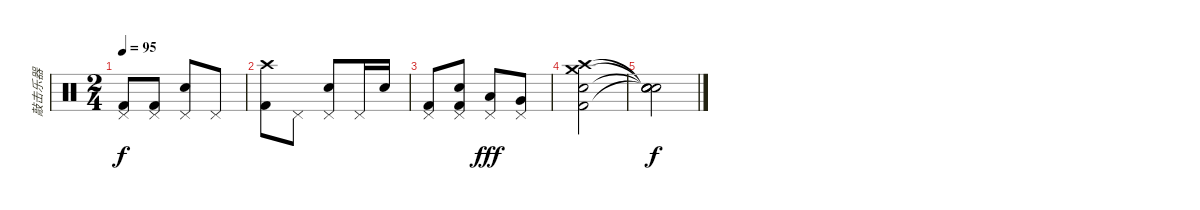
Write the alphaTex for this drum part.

\track ("敲击乐器" "敲击乐器") {instrument percussion}
\staff {score}
\articulation defaults
\ts (2 4)
\tempo 95
\clef neutral
\ks c
("Pedal Hi-Hat (hit)" "Kick (hit) 2").8{dy f} ("Pedal Hi-Hat (hit)" "Kick (hit) 2").8 ("Pedal Hi-Hat (hit)" "Electric Snare (hit)").8 "Pedal Hi-Hat (hit)".8 |
("Crash high (hit)" "Kick (hit) 2").8 "Pedal Hi-Hat (hit)".8 ("Pedal Hi-Hat (hit)" "Electric Snare (hit)").8 "Pedal Hi-Hat (hit)".16 "Electric Snare (hit)".16 |
("Pedal Hi-Hat (hit)" "Kick (hit) 2").8 ("Pedal Hi-Hat (hit)" "Electric Snare (hit)" "Kick (hit) 2").8 ("Pedal Hi-Hat (hit)" "Low Tom (hit)").8{dy fff} ("Pedal Hi-Hat (hit)" "Very Low Tom (hit)").8 |
("Crash medium (hit)" "Crash high (hit)" "Electric Snare (hit)" "Kick (hit) 2").2 |
("Snare (hit)"{t} "Snare (hit)"{t} "Snare (hit)"{t} "Snare (hit)"{t}).2{dy f}
